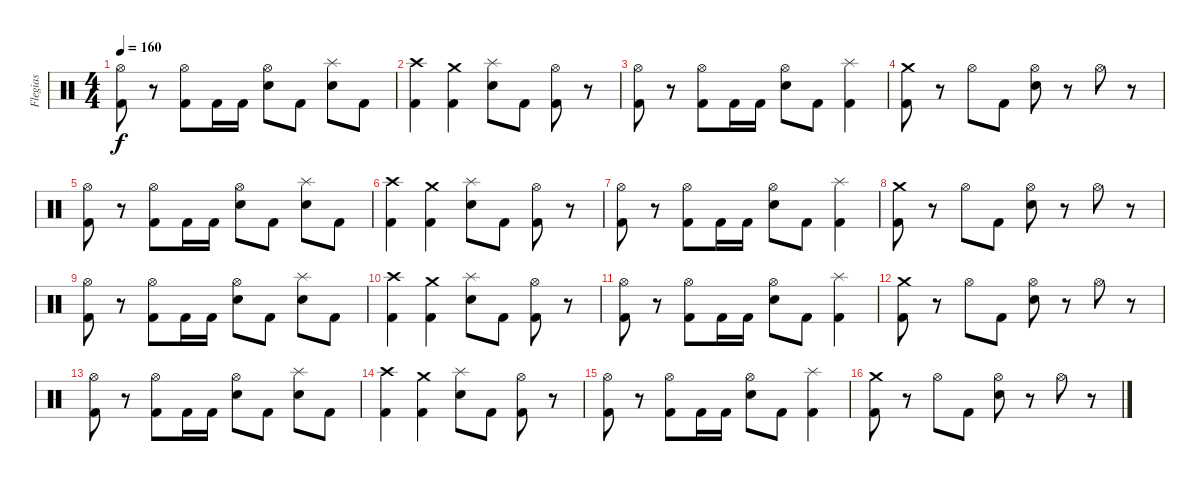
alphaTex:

\track ("Flegias" "Flegias") {instrument percussion}
\staff {score}
\articulation defaults
\ts (4 4)
\tempo 160
\clef neutral
\ks c
("Hi-Hat (open)" "Kick (hit) 2").8{dy f} r.8 ("Hi-Hat (open)" "Kick (hit) 2").8 "Kick (hit) 2".16 "Kick (hit) 2".16 ("Hi-Hat (open)" "Snare (hit) 2").8 "Kick (hit) 2".8 ("Splash (hit)" "Snare (hit) 2").8 "Kick (hit) 2".8 |
("Crash high (hit)" "Kick (hit) 2").4 ("Crash medium (hit)" "Kick (hit) 2").4 ("Splash (hit)" "Snare (hit) 2").8 "Kick (hit) 2".8 ("Hi-Hat (open)" "Kick (hit) 2").8 r.8 |
("Hi-Hat (open)" "Kick (hit) 2").8 r.8 ("Hi-Hat (open)" "Kick (hit) 2").8 "Kick (hit) 2".16 "Kick (hit) 2".16 ("Hi-Hat (open)" "Snare (hit) 2").8 "Kick (hit) 2".8 ("Splash (hit)" "Kick (hit) 2").4 |
("Crash medium (hit)" "Kick (hit) 2").8 r.8 "Hi-Hat (open)".8 "Kick (hit) 2".8 ("Hi-Hat (open)" "Snare (hit) 2").8 r.8 "Hi-Hat (open)".8 r.8 |
("Hi-Hat (open)" "Kick (hit) 2").8 r.8 ("Hi-Hat (open)" "Kick (hit) 2").8 "Kick (hit) 2".16 "Kick (hit) 2".16 ("Hi-Hat (open)" "Snare (hit) 2").8 "Kick (hit) 2".8 ("Splash (hit)" "Snare (hit) 2").8 "Kick (hit) 2".8 |
("Crash high (hit)" "Kick (hit) 2").4 ("Crash medium (hit)" "Kick (hit) 2").4 ("Splash (hit)" "Snare (hit) 2").8 "Kick (hit) 2".8 ("Hi-Hat (open)" "Kick (hit) 2").8 r.8 |
("Hi-Hat (open)" "Kick (hit) 2").8 r.8 ("Hi-Hat (open)" "Kick (hit) 2").8 "Kick (hit) 2".16 "Kick (hit) 2".16 ("Hi-Hat (open)" "Snare (hit) 2").8 "Kick (hit) 2".8 ("Splash (hit)" "Kick (hit) 2").4 |
("Crash medium (hit)" "Kick (hit) 2").8 r.8 "Hi-Hat (open)".8 "Kick (hit) 2".8 ("Hi-Hat (open)" "Snare (hit) 2").8 r.8 "Hi-Hat (open)".8 r.8 |
("Hi-Hat (open)" "Kick (hit) 2").8 r.8 ("Hi-Hat (open)" "Kick (hit) 2").8 "Kick (hit) 2".16 "Kick (hit) 2".16 ("Hi-Hat (open)" "Snare (hit) 2").8 "Kick (hit) 2".8 ("Splash (hit)" "Snare (hit) 2").8 "Kick (hit) 2".8 |
("Crash high (hit)" "Kick (hit) 2").4 ("Crash medium (hit)" "Kick (hit) 2").4 ("Splash (hit)" "Snare (hit) 2").8 "Kick (hit) 2".8 ("Hi-Hat (open)" "Kick (hit) 2").8 r.8 |
("Hi-Hat (open)" "Kick (hit) 2").8 r.8 ("Hi-Hat (open)" "Kick (hit) 2").8 "Kick (hit) 2".16 "Kick (hit) 2".16 ("Hi-Hat (open)" "Snare (hit) 2").8 "Kick (hit) 2".8 ("Splash (hit)" "Kick (hit) 2").4 |
("Crash medium (hit)" "Kick (hit) 2").8 r.8 "Hi-Hat (open)".8 "Kick (hit) 2".8 ("Hi-Hat (open)" "Snare (hit) 2").8 r.8 "Hi-Hat (open)".8 r.8 |
("Hi-Hat (open)" "Kick (hit) 2").8 r.8 ("Hi-Hat (open)" "Kick (hit) 2").8 "Kick (hit) 2".16 "Kick (hit) 2".16 ("Hi-Hat (open)" "Snare (hit) 2").8 "Kick (hit) 2".8 ("Splash (hit)" "Snare (hit) 2").8 "Kick (hit) 2".8 |
("Crash high (hit)" "Kick (hit) 2").4 ("Crash medium (hit)" "Kick (hit) 2").4 ("Splash (hit)" "Snare (hit) 2").8 "Kick (hit) 2".8 ("Hi-Hat (open)" "Kick (hit) 2").8 r.8 |
("Hi-Hat (open)" "Kick (hit) 2").8 r.8 ("Hi-Hat (open)" "Kick (hit) 2").8 "Kick (hit) 2".16 "Kick (hit) 2".16 ("Hi-Hat (open)" "Snare (hit) 2").8 "Kick (hit) 2".8 ("Splash (hit)" "Kick (hit) 2").4 |
("Crash medium (hit)" "Kick (hit) 2").8 r.8 "Hi-Hat (open)".8 "Kick (hit) 2".8 ("Hi-Hat (open)" "Snare (hit) 2").8 r.8 "Hi-Hat (open)".8 r.8
